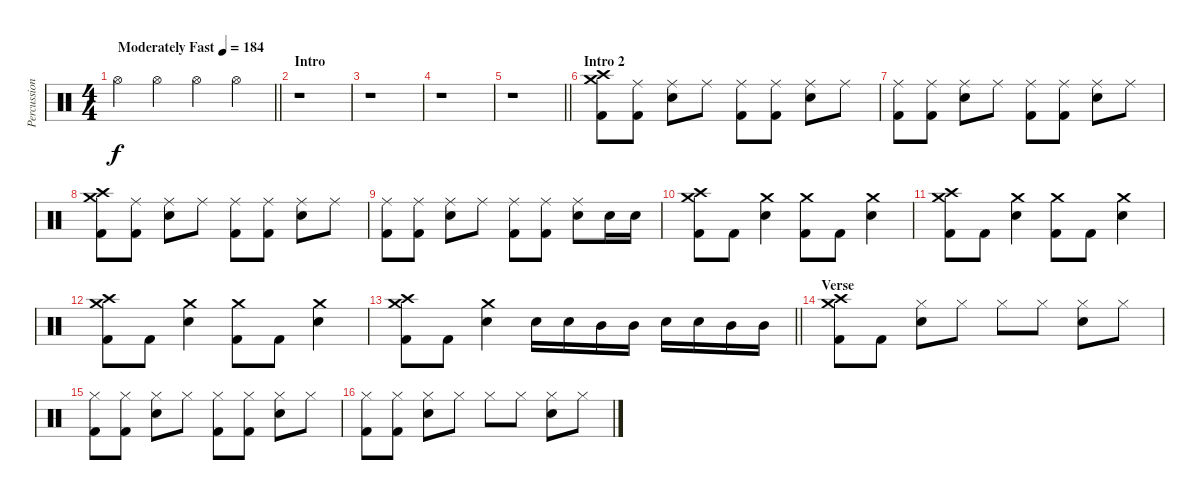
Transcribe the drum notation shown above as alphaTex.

\track ("Percussion" "Percussion") {instrument percussion}
\staff {score}
\articulation defaults
\ts (4 4)
\tempo (184 "Moderately Fast")
\clef neutral
\barLineRight lightlight
\ks c "Hi-Hat (open)".4{dy f} "Hi-Hat (open)".4 "Hi-Hat (open)".4 "Hi-Hat (open)".4
|
\section ("" "Intro")
r.1 |
r.1 |
r.1 |
\barLineRight lightlight
r.1 |
\section ("" "Intro 2")
("Crash medium (hit)" "Crash high (hit)" "Kick (hit) 2").8 ("Ride (middle)" "Kick (hit) 2").8 ("Ride (middle)" "Electric Snare (hit)").8 "Ride (middle)".8 ("Ride (middle)" "Kick (hit) 2").8 ("Ride (middle)" "Kick (hit) 2").8 ("Ride (middle)" "Electric Snare (hit)").8 "Ride (middle)".8 |
("Ride (middle)" "Kick (hit) 2").8 ("Ride (middle)" "Kick (hit) 2").8 ("Ride (middle)" "Electric Snare (hit)").8 "Ride (middle)".8 ("Ride (middle)" "Kick (hit) 2").8 ("Ride (middle)" "Kick (hit) 2").8 ("Ride (middle)" "Electric Snare (hit)").8 "Ride (middle)".8 |
("Crash medium (hit)" "Crash high (hit)" "Kick (hit) 2").8 ("Ride (middle)" "Kick (hit) 2").8 ("Ride (middle)" "Electric Snare (hit)").8 "Ride (middle)".8 ("Ride (middle)" "Kick (hit) 2").8 ("Ride (middle)" "Kick (hit) 2").8 ("Ride (middle)" "Electric Snare (hit)").8 "Ride (middle)".8 |
("Ride (middle)" "Kick (hit) 2").8 ("Ride (middle)" "Kick (hit) 2").8 ("Ride (middle)" "Electric Snare (hit)").8 "Ride (middle)".8 ("Ride (middle)" "Kick (hit) 2").8 ("Ride (middle)" "Kick (hit) 2").8 ("Ride (middle)" "Electric Snare (hit)").8 "Electric Snare (hit)".16 "Electric Snare (hit)".16 |
("Crash high (hit)" "Crash medium (hit)" "Kick (hit) 2").8 "Kick (hit) 2".8 ("Crash medium (hit)" "Electric Snare (hit)").4 ("Crash medium (hit)" "Kick (hit) 2").8 "Kick (hit) 2".8 ("Crash medium (hit)" "Electric Snare (hit)").4 |
("Crash high (hit)" "Crash medium (hit)" "Kick (hit) 2").8 "Kick (hit) 2".8 ("Crash medium (hit)" "Electric Snare (hit)").4 ("Crash medium (hit)" "Kick (hit) 2").8 "Kick (hit) 2".8 ("Crash medium (hit)" "Electric Snare (hit)").4 |
("Crash high (hit)" "Crash medium (hit)" "Kick (hit) 2").8 "Kick (hit) 2".8 ("Crash medium (hit)" "Electric Snare (hit)").4 ("Crash medium (hit)" "Kick (hit) 2").8 "Kick (hit) 2".8 ("Crash medium (hit)" "Electric Snare (hit)").4 |
\barLineRight lightlight
("Crash high (hit)" "Crash medium (hit)" "Kick (hit) 2").8 "Kick (hit) 2".8 ("Crash medium (hit)" "Electric Snare (hit)").4 "Electric Snare (hit)".16 "Electric Snare (hit)".16 "Mid Tom (hit)".16 "Mid Tom (hit)".16 "Electric Snare (hit)".16 "Electric Snare (hit)".16 "Mid Tom (hit)".16 "Mid Tom (hit)".16 |
\section ("" "Verse")
("Crash high (hit)" "Crash medium (hit)" "Kick (hit) 2").8 "Kick (hit) 2".8 ("Hi-Hat (closed)" "Electric Snare (hit)").8 "Hi-Hat (closed)".8 "Hi-Hat (closed)".8 "Hi-Hat (closed)".8 ("Hi-Hat (closed)" "Electric Snare (hit)").8 "Hi-Hat (closed)".8 |
("Hi-Hat (closed)" "Kick (hit) 2").8 ("Hi-Hat (closed)" "Kick (hit) 2").8 ("Hi-Hat (closed)" "Electric Snare (hit)").8 "Hi-Hat (closed)".8 ("Hi-Hat (closed)" "Kick (hit) 2").8 ("Hi-Hat (closed)" "Kick (hit) 2").8 ("Hi-Hat (closed)" "Electric Snare (hit)").8 "Hi-Hat (closed)".8 |
("Hi-Hat (closed)" "Kick (hit) 2").8 ("Hi-Hat (closed)" "Kick (hit) 2").8 ("Hi-Hat (closed)" "Electric Snare (hit)").8 "Hi-Hat (closed)".8 "Hi-Hat (closed)".8 "Hi-Hat (closed)".8 ("Hi-Hat (closed)" "Electric Snare (hit)").8 "Hi-Hat (closed)".8
